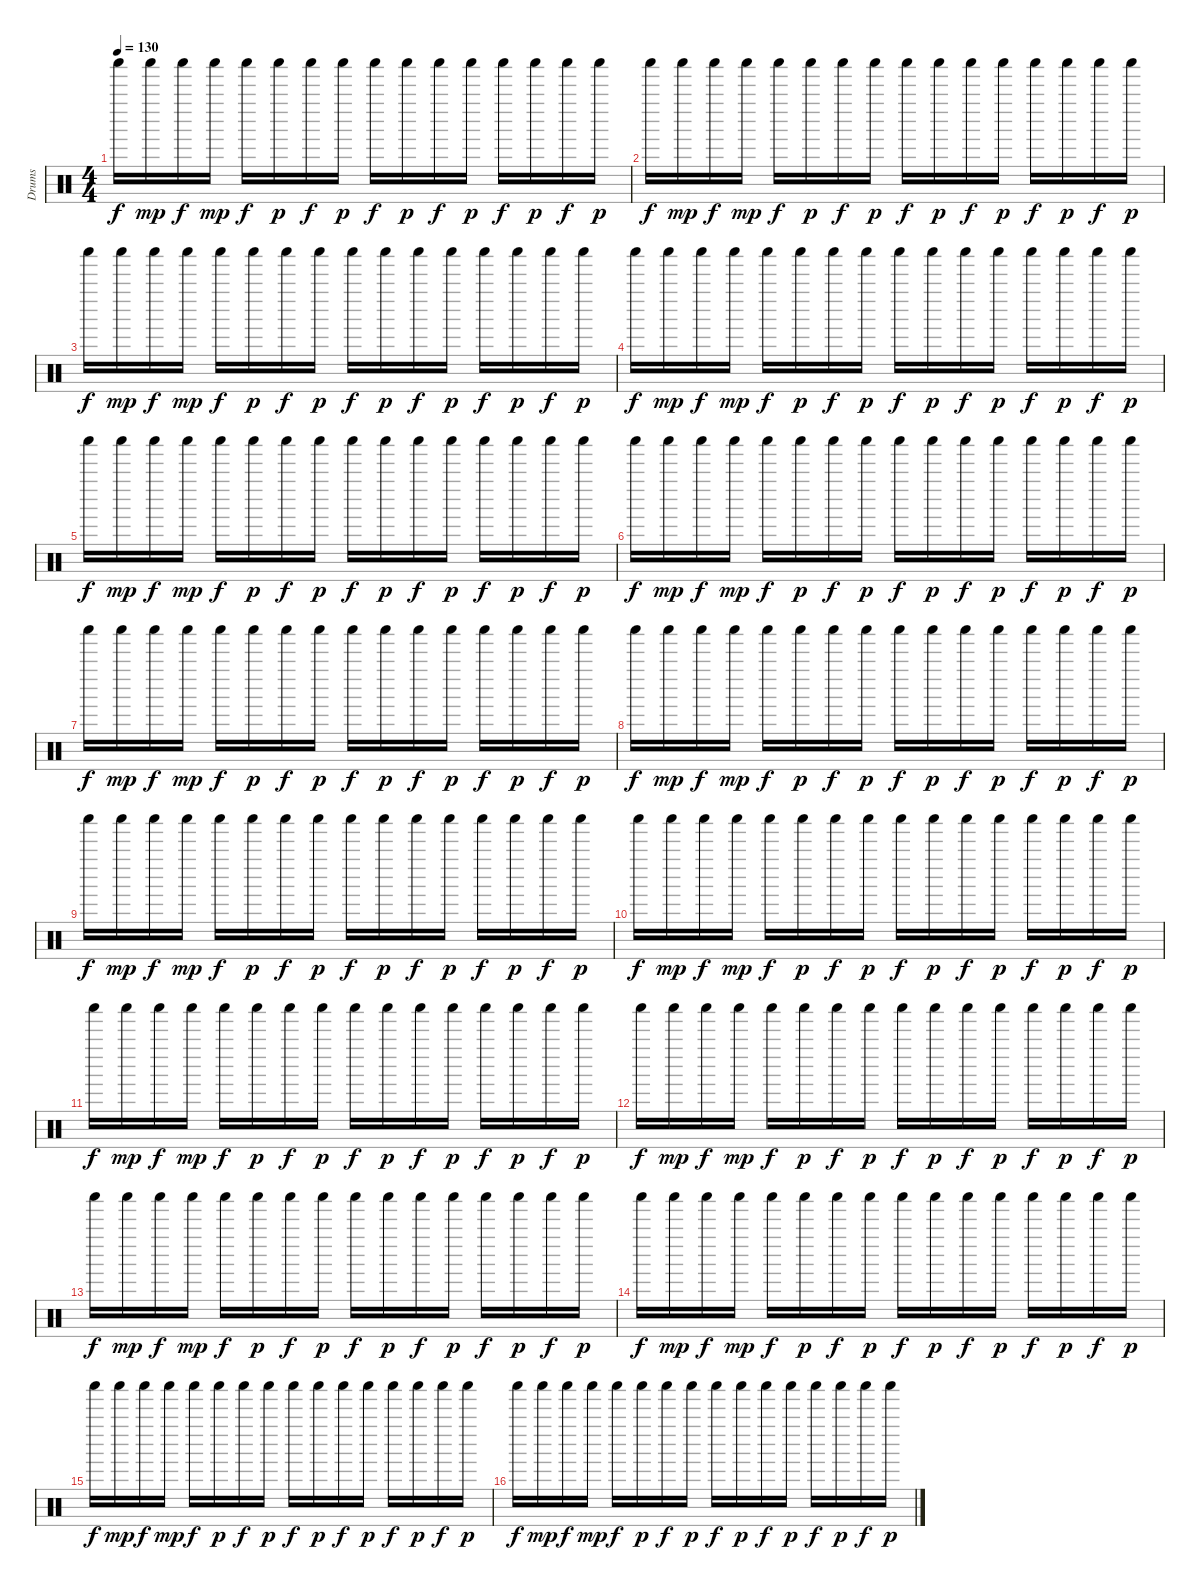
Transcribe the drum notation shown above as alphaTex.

\track ("Drums" "Drums") {instrument percussion}
\staff {score}
\articulation defaults
\ts (4 4)
\tempo 130
\clef neutral
\ks c "Shaker (hit)".16{dy f} "Shaker (hit)".16{dy mp} "Shaker (hit)".16{dy f} "Shaker (hit)".16{dy mp} "Shaker (hit)".16{dy f} "Shaker (hit)".16{dy p} "Shaker (hit)".16{dy f} "Shaker (hit)".16{dy p} "Shaker (hit)".16{dy f} "Shaker (hit)".16{dy p} "Shaker (hit)".16{dy f} "Shaker (hit)".16{dy p} "Shaker (hit)".16{dy f} "Shaker (hit)".16{dy p} "Shaker (hit)".16{dy f} "Shaker (hit)".16{dy p}
|
"Shaker (hit)".16{dy f} "Shaker (hit)".16{dy mp} "Shaker (hit)".16{dy f} "Shaker (hit)".16{dy mp} "Shaker (hit)".16{dy f} "Shaker (hit)".16{dy p} "Shaker (hit)".16{dy f} "Shaker (hit)".16{dy p} "Shaker (hit)".16{dy f} "Shaker (hit)".16{dy p} "Shaker (hit)".16{dy f} "Shaker (hit)".16{dy p} "Shaker (hit)".16{dy f} "Shaker (hit)".16{dy p} "Shaker (hit)".16{dy f} "Shaker (hit)".16{dy p} |
"Shaker (hit)".16{dy f} "Shaker (hit)".16{dy mp} "Shaker (hit)".16{dy f} "Shaker (hit)".16{dy mp} "Shaker (hit)".16{dy f} "Shaker (hit)".16{dy p} "Shaker (hit)".16{dy f} "Shaker (hit)".16{dy p} "Shaker (hit)".16{dy f} "Shaker (hit)".16{dy p} "Shaker (hit)".16{dy f} "Shaker (hit)".16{dy p} "Shaker (hit)".16{dy f} "Shaker (hit)".16{dy p} "Shaker (hit)".16{dy f} "Shaker (hit)".16{dy p} |
"Shaker (hit)".16{dy f} "Shaker (hit)".16{dy mp} "Shaker (hit)".16{dy f} "Shaker (hit)".16{dy mp} "Shaker (hit)".16{dy f} "Shaker (hit)".16{dy p} "Shaker (hit)".16{dy f} "Shaker (hit)".16{dy p} "Shaker (hit)".16{dy f} "Shaker (hit)".16{dy p} "Shaker (hit)".16{dy f} "Shaker (hit)".16{dy p} "Shaker (hit)".16{dy f} "Shaker (hit)".16{dy p} "Shaker (hit)".16{dy f} "Shaker (hit)".16{dy p} |
"Shaker (hit)".16{dy f} "Shaker (hit)".16{dy mp} "Shaker (hit)".16{dy f} "Shaker (hit)".16{dy mp} "Shaker (hit)".16{dy f} "Shaker (hit)".16{dy p} "Shaker (hit)".16{dy f} "Shaker (hit)".16{dy p} "Shaker (hit)".16{dy f} "Shaker (hit)".16{dy p} "Shaker (hit)".16{dy f} "Shaker (hit)".16{dy p} "Shaker (hit)".16{dy f} "Shaker (hit)".16{dy p} "Shaker (hit)".16{dy f} "Shaker (hit)".16{dy p} |
"Shaker (hit)".16{dy f} "Shaker (hit)".16{dy mp} "Shaker (hit)".16{dy f} "Shaker (hit)".16{dy mp} "Shaker (hit)".16{dy f} "Shaker (hit)".16{dy p} "Shaker (hit)".16{dy f} "Shaker (hit)".16{dy p} "Shaker (hit)".16{dy f} "Shaker (hit)".16{dy p} "Shaker (hit)".16{dy f} "Shaker (hit)".16{dy p} "Shaker (hit)".16{dy f} "Shaker (hit)".16{dy p} "Shaker (hit)".16{dy f} "Shaker (hit)".16{dy p} |
"Shaker (hit)".16{dy f} "Shaker (hit)".16{dy mp} "Shaker (hit)".16{dy f} "Shaker (hit)".16{dy mp} "Shaker (hit)".16{dy f} "Shaker (hit)".16{dy p} "Shaker (hit)".16{dy f} "Shaker (hit)".16{dy p} "Shaker (hit)".16{dy f} "Shaker (hit)".16{dy p} "Shaker (hit)".16{dy f} "Shaker (hit)".16{dy p} "Shaker (hit)".16{dy f} "Shaker (hit)".16{dy p} "Shaker (hit)".16{dy f} "Shaker (hit)".16{dy p} |
"Shaker (hit)".16{dy f} "Shaker (hit)".16{dy mp} "Shaker (hit)".16{dy f} "Shaker (hit)".16{dy mp} "Shaker (hit)".16{dy f} "Shaker (hit)".16{dy p} "Shaker (hit)".16{dy f} "Shaker (hit)".16{dy p} "Shaker (hit)".16{dy f} "Shaker (hit)".16{dy p} "Shaker (hit)".16{dy f} "Shaker (hit)".16{dy p} "Shaker (hit)".16{dy f} "Shaker (hit)".16{dy p} "Shaker (hit)".16{dy f} "Shaker (hit)".16{dy p} |
"Shaker (hit)".16{dy f} "Shaker (hit)".16{dy mp} "Shaker (hit)".16{dy f} "Shaker (hit)".16{dy mp} "Shaker (hit)".16{dy f} "Shaker (hit)".16{dy p} "Shaker (hit)".16{dy f} "Shaker (hit)".16{dy p} "Shaker (hit)".16{dy f} "Shaker (hit)".16{dy p} "Shaker (hit)".16{dy f} "Shaker (hit)".16{dy p} "Shaker (hit)".16{dy f} "Shaker (hit)".16{dy p} "Shaker (hit)".16{dy f} "Shaker (hit)".16{dy p} |
"Shaker (hit)".16{dy f} "Shaker (hit)".16{dy mp} "Shaker (hit)".16{dy f} "Shaker (hit)".16{dy mp} "Shaker (hit)".16{dy f} "Shaker (hit)".16{dy p} "Shaker (hit)".16{dy f} "Shaker (hit)".16{dy p} "Shaker (hit)".16{dy f} "Shaker (hit)".16{dy p} "Shaker (hit)".16{dy f} "Shaker (hit)".16{dy p} "Shaker (hit)".16{dy f} "Shaker (hit)".16{dy p} "Shaker (hit)".16{dy f} "Shaker (hit)".16{dy p} |
"Shaker (hit)".16{dy f} "Shaker (hit)".16{dy mp} "Shaker (hit)".16{dy f} "Shaker (hit)".16{dy mp} "Shaker (hit)".16{dy f} "Shaker (hit)".16{dy p} "Shaker (hit)".16{dy f} "Shaker (hit)".16{dy p} "Shaker (hit)".16{dy f} "Shaker (hit)".16{dy p} "Shaker (hit)".16{dy f} "Shaker (hit)".16{dy p} "Shaker (hit)".16{dy f} "Shaker (hit)".16{dy p} "Shaker (hit)".16{dy f} "Shaker (hit)".16{dy p} |
"Shaker (hit)".16{dy f} "Shaker (hit)".16{dy mp} "Shaker (hit)".16{dy f} "Shaker (hit)".16{dy mp} "Shaker (hit)".16{dy f} "Shaker (hit)".16{dy p} "Shaker (hit)".16{dy f} "Shaker (hit)".16{dy p} "Shaker (hit)".16{dy f} "Shaker (hit)".16{dy p} "Shaker (hit)".16{dy f} "Shaker (hit)".16{dy p} "Shaker (hit)".16{dy f} "Shaker (hit)".16{dy p} "Shaker (hit)".16{dy f} "Shaker (hit)".16{dy p} |
"Shaker (hit)".16{dy f} "Shaker (hit)".16{dy mp} "Shaker (hit)".16{dy f} "Shaker (hit)".16{dy mp} "Shaker (hit)".16{dy f} "Shaker (hit)".16{dy p} "Shaker (hit)".16{dy f} "Shaker (hit)".16{dy p} "Shaker (hit)".16{dy f} "Shaker (hit)".16{dy p} "Shaker (hit)".16{dy f} "Shaker (hit)".16{dy p} "Shaker (hit)".16{dy f} "Shaker (hit)".16{dy p} "Shaker (hit)".16{dy f} "Shaker (hit)".16{dy p} |
"Shaker (hit)".16{dy f} "Shaker (hit)".16{dy mp} "Shaker (hit)".16{dy f} "Shaker (hit)".16{dy mp} "Shaker (hit)".16{dy f} "Shaker (hit)".16{dy p} "Shaker (hit)".16{dy f} "Shaker (hit)".16{dy p} "Shaker (hit)".16{dy f} "Shaker (hit)".16{dy p} "Shaker (hit)".16{dy f} "Shaker (hit)".16{dy p} "Shaker (hit)".16{dy f} "Shaker (hit)".16{dy p} "Shaker (hit)".16{dy f} "Shaker (hit)".16{dy p} |
"Shaker (hit)".16{dy f} "Shaker (hit)".16{dy mp} "Shaker (hit)".16{dy f} "Shaker (hit)".16{dy mp} "Shaker (hit)".16{dy f} "Shaker (hit)".16{dy p} "Shaker (hit)".16{dy f} "Shaker (hit)".16{dy p} "Shaker (hit)".16{dy f} "Shaker (hit)".16{dy p} "Shaker (hit)".16{dy f} "Shaker (hit)".16{dy p} "Shaker (hit)".16{dy f} "Shaker (hit)".16{dy p} "Shaker (hit)".16{dy f} "Shaker (hit)".16{dy p} |
"Shaker (hit)".16{dy f} "Shaker (hit)".16{dy mp} "Shaker (hit)".16{dy f} "Shaker (hit)".16{dy mp} "Shaker (hit)".16{dy f} "Shaker (hit)".16{dy p} "Shaker (hit)".16{dy f} "Shaker (hit)".16{dy p} "Shaker (hit)".16{dy f} "Shaker (hit)".16{dy p} "Shaker (hit)".16{dy f} "Shaker (hit)".16{dy p} "Shaker (hit)".16{dy f} "Shaker (hit)".16{dy p} "Shaker (hit)".16{dy f} "Shaker (hit)".16{dy p}
